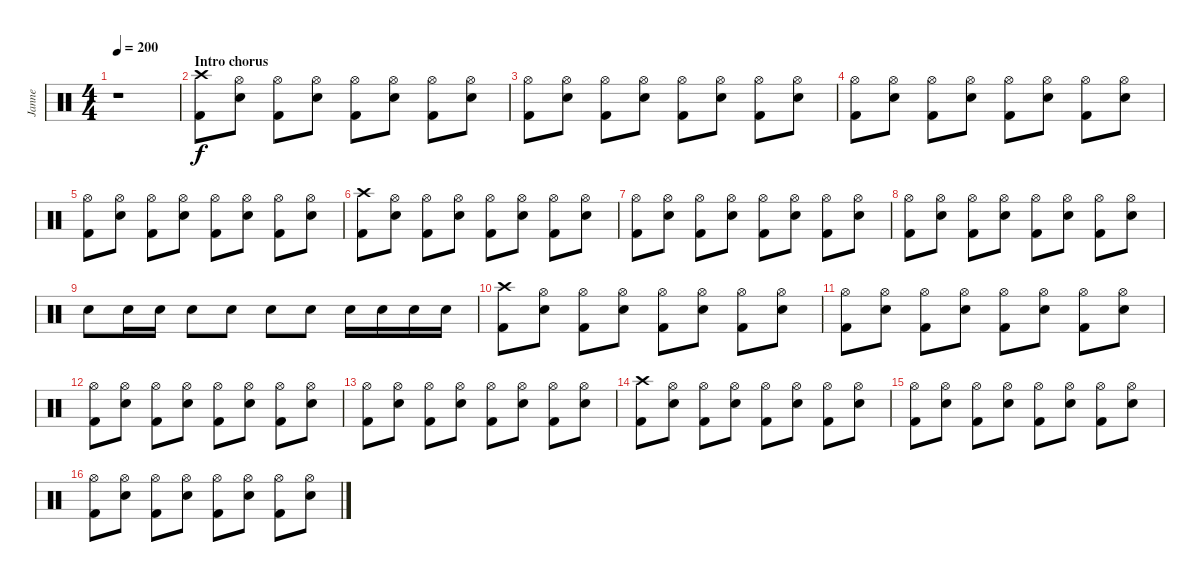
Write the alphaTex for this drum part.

\track ("Janne" "Janne") {instrument percussion}
\staff {score}
\articulation defaults
\ts (4 4)
\tempo 200
\clef neutral
\ks c
r.1{dy f} |
\section ("" "Intro chorus")
("Crash high (hit)" "Kick (hit) 2").8 ("Hi-Hat (open)" "Electric Snare (hit)").8 ("Hi-Hat (open)" "Kick (hit) 2").8 ("Hi-Hat (open)" "Electric Snare (hit)").8 ("Hi-Hat (open)" "Kick (hit) 2").8 ("Hi-Hat (open)" "Electric Snare (hit)").8 ("Hi-Hat (open)" "Kick (hit) 2").8 ("Hi-Hat (open)" "Electric Snare (hit)").8 |
("Hi-Hat (open)" "Kick (hit) 2").8 ("Hi-Hat (open)" "Electric Snare (hit)").8 ("Hi-Hat (open)" "Kick (hit) 2").8 ("Hi-Hat (open)" "Electric Snare (hit)").8 ("Hi-Hat (open)" "Kick (hit) 2").8 ("Hi-Hat (open)" "Electric Snare (hit)").8 ("Hi-Hat (open)" "Kick (hit) 2").8 ("Hi-Hat (open)" "Electric Snare (hit)").8 |
("Hi-Hat (open)" "Kick (hit) 2").8 ("Hi-Hat (open)" "Electric Snare (hit)").8 ("Hi-Hat (open)" "Kick (hit) 2").8 ("Hi-Hat (open)" "Electric Snare (hit)").8 ("Hi-Hat (open)" "Kick (hit) 2").8 ("Hi-Hat (open)" "Electric Snare (hit)").8 ("Hi-Hat (open)" "Kick (hit) 2").8 ("Hi-Hat (open)" "Electric Snare (hit)").8 |
("Hi-Hat (open)" "Kick (hit) 2").8 ("Hi-Hat (open)" "Electric Snare (hit)").8 ("Hi-Hat (open)" "Kick (hit) 2").8 ("Hi-Hat (open)" "Electric Snare (hit)").8 ("Hi-Hat (open)" "Kick (hit) 2").8 ("Hi-Hat (open)" "Electric Snare (hit)").8 ("Hi-Hat (open)" "Kick (hit) 2").8 ("Hi-Hat (open)" "Electric Snare (hit)").8 |
("Crash high (hit)" "Kick (hit) 2").8 ("Hi-Hat (open)" "Electric Snare (hit)").8 ("Hi-Hat (open)" "Kick (hit) 2").8 ("Hi-Hat (open)" "Electric Snare (hit)").8 ("Hi-Hat (open)" "Kick (hit) 2").8 ("Hi-Hat (open)" "Electric Snare (hit)").8 ("Hi-Hat (open)" "Kick (hit) 2").8 ("Hi-Hat (open)" "Electric Snare (hit)").8 |
("Hi-Hat (open)" "Kick (hit) 2").8 ("Hi-Hat (open)" "Electric Snare (hit)").8 ("Hi-Hat (open)" "Kick (hit) 2").8 ("Hi-Hat (open)" "Electric Snare (hit)").8 ("Hi-Hat (open)" "Kick (hit) 2").8 ("Hi-Hat (open)" "Electric Snare (hit)").8 ("Hi-Hat (open)" "Kick (hit) 2").8 ("Hi-Hat (open)" "Electric Snare (hit)").8 |
("Hi-Hat (open)" "Kick (hit) 2").8 ("Hi-Hat (open)" "Electric Snare (hit)").8 ("Hi-Hat (open)" "Kick (hit) 2").8 ("Hi-Hat (open)" "Electric Snare (hit)").8 ("Hi-Hat (open)" "Kick (hit) 2").8 ("Hi-Hat (open)" "Electric Snare (hit)").8 ("Hi-Hat (open)" "Kick (hit) 2").8 ("Hi-Hat (open)" "Electric Snare (hit)").8 |
"Electric Snare (hit)".8 "Electric Snare (hit)".16 "Electric Snare (hit)".16 "Electric Snare (hit)".8 "Electric Snare (hit)".8 "Electric Snare (hit)".8 "Electric Snare (hit)".8 "Electric Snare (hit)".16 "Electric Snare (hit)".16 "Electric Snare (hit)".16 "Electric Snare (hit)".16 |
("Crash high (hit)" "Kick (hit) 2").8 ("Hi-Hat (open)" "Electric Snare (hit)").8 ("Hi-Hat (open)" "Kick (hit) 2").8 ("Hi-Hat (open)" "Electric Snare (hit)").8 ("Hi-Hat (open)" "Kick (hit) 2").8 ("Hi-Hat (open)" "Electric Snare (hit)").8 ("Hi-Hat (open)" "Kick (hit) 2").8 ("Hi-Hat (open)" "Electric Snare (hit)").8 |
("Hi-Hat (open)" "Kick (hit) 2").8 ("Hi-Hat (open)" "Electric Snare (hit)").8 ("Hi-Hat (open)" "Kick (hit) 2").8 ("Hi-Hat (open)" "Electric Snare (hit)").8 ("Hi-Hat (open)" "Kick (hit) 2").8 ("Hi-Hat (open)" "Electric Snare (hit)").8 ("Hi-Hat (open)" "Kick (hit) 2").8 ("Hi-Hat (open)" "Electric Snare (hit)").8 |
("Hi-Hat (open)" "Kick (hit) 2").8 ("Hi-Hat (open)" "Electric Snare (hit)").8 ("Hi-Hat (open)" "Kick (hit) 2").8 ("Hi-Hat (open)" "Electric Snare (hit)").8 ("Hi-Hat (open)" "Kick (hit) 2").8 ("Hi-Hat (open)" "Electric Snare (hit)").8 ("Hi-Hat (open)" "Kick (hit) 2").8 ("Hi-Hat (open)" "Electric Snare (hit)").8 |
("Hi-Hat (open)" "Kick (hit) 2").8 ("Hi-Hat (open)" "Electric Snare (hit)").8 ("Hi-Hat (open)" "Kick (hit) 2").8 ("Hi-Hat (open)" "Electric Snare (hit)").8 ("Hi-Hat (open)" "Kick (hit) 2").8 ("Hi-Hat (open)" "Electric Snare (hit)").8 ("Hi-Hat (open)" "Kick (hit) 2").8 ("Hi-Hat (open)" "Electric Snare (hit)").8 |
("Crash high (hit)" "Kick (hit) 2").8 ("Hi-Hat (open)" "Electric Snare (hit)").8 ("Hi-Hat (open)" "Kick (hit) 2").8 ("Hi-Hat (open)" "Electric Snare (hit)").8 ("Hi-Hat (open)" "Kick (hit) 2").8 ("Hi-Hat (open)" "Electric Snare (hit)").8 ("Hi-Hat (open)" "Kick (hit) 2").8 ("Hi-Hat (open)" "Electric Snare (hit)").8 |
("Hi-Hat (open)" "Kick (hit) 2").8 ("Hi-Hat (open)" "Electric Snare (hit)").8 ("Hi-Hat (open)" "Kick (hit) 2").8 ("Hi-Hat (open)" "Electric Snare (hit)").8 ("Hi-Hat (open)" "Kick (hit) 2").8 ("Hi-Hat (open)" "Electric Snare (hit)").8 ("Hi-Hat (open)" "Kick (hit) 2").8 ("Hi-Hat (open)" "Electric Snare (hit)").8 |
("Hi-Hat (open)" "Kick (hit) 2").8 ("Hi-Hat (open)" "Electric Snare (hit)").8 ("Hi-Hat (open)" "Kick (hit) 2").8 ("Hi-Hat (open)" "Electric Snare (hit)").8 ("Hi-Hat (open)" "Kick (hit) 2").8 ("Hi-Hat (open)" "Electric Snare (hit)").8 ("Hi-Hat (open)" "Kick (hit) 2").8 ("Hi-Hat (open)" "Electric Snare (hit)").8
